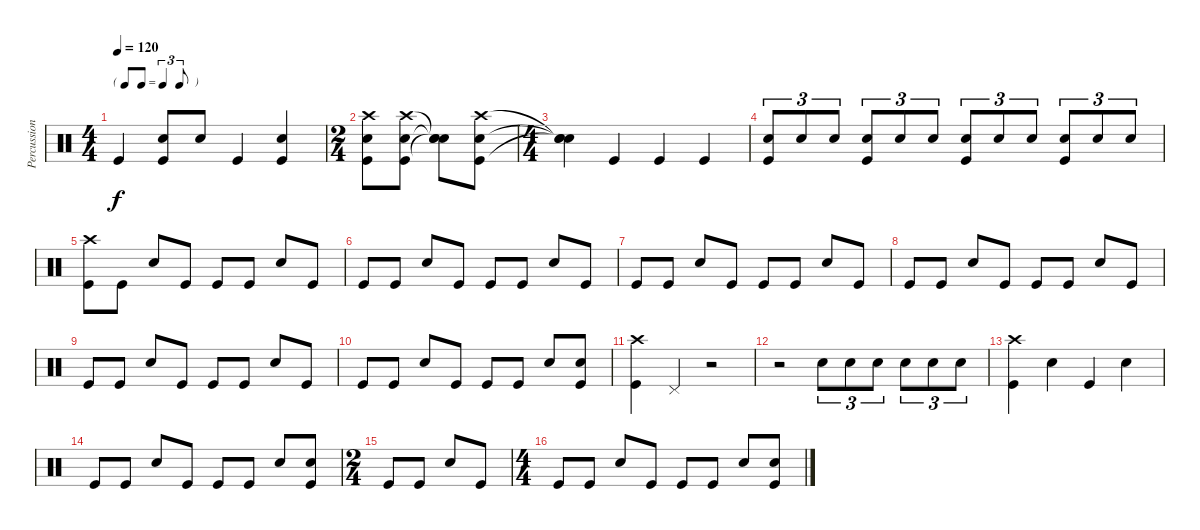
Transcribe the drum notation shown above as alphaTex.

\track ("Percussion" "Percussion") {instrument percussion}
\staff {score}
\articulation defaults
\ts (4 4)
\tf triplet8th
\tempo 120
\clef neutral
\ks c "Kick (hit)".4{dy f}
("Snare (hit) 2" "Kick (hit)").8 "Snare (hit) 2".8 "Kick (hit)".4 ("Snare (hit) 2" "Kick (hit)").4 |
\ts (2 4)
("Crash high (hit)" "Snare (hit) 2" "Kick (hit)").8 ("Crash high (hit)" "Snare (hit) 2" "Kick (hit)").8 ("Snare (hit)"{t} "Snare (hit)"{t} "Snare (hit)"{t}).8 ("Crash high (hit)" "Snare (hit) 2" "Kick (hit)").8 |
\ts (4 4)
("Snare (hit)"{t} "Snare (hit)"{t} "Snare (hit)"{t}).4 "Kick (hit)".4 "Kick (hit)".4 "Kick (hit)".4 |
("Snare (hit) 2" "Kick (hit)").8{tu (3 2)} "Snare (hit) 2".8{tu (3 2)} "Snare (hit) 2".8{tu (3 2)} ("Snare (hit) 2" "Kick (hit)").8{tu (3 2)} "Snare (hit) 2".8{tu (3 2)} "Snare (hit) 2".8{tu (3 2)} ("Snare (hit) 2" "Kick (hit)").8{tu (3 2)} "Snare (hit) 2".8{tu (3 2)} "Snare (hit) 2".8{tu (3 2)} ("Snare (hit) 2" "Kick (hit)").8{tu (3 2)} "Snare (hit) 2".8{tu (3 2)} "Snare (hit) 2".8{tu (3 2)} |
("Crash high (hit)" "Kick (hit)").8 "Kick (hit)".8 "Snare (hit) 2".8 "Kick (hit)".8 "Kick (hit)".8 "Kick (hit)".8 "Snare (hit) 2".8 "Kick (hit)".8 |
"Kick (hit)".8 "Kick (hit)".8 "Snare (hit) 2".8 "Kick (hit)".8 "Kick (hit)".8 "Kick (hit)".8 "Snare (hit) 2".8 "Kick (hit)".8 |
"Kick (hit)".8 "Kick (hit)".8 "Snare (hit) 2".8 "Kick (hit)".8 "Kick (hit)".8 "Kick (hit)".8 "Snare (hit) 2".8 "Kick (hit)".8 |
"Kick (hit)".8 "Kick (hit)".8 "Snare (hit) 2".8 "Kick (hit)".8 "Kick (hit)".8 "Kick (hit)".8 "Snare (hit) 2".8 "Kick (hit)".8 |
"Kick (hit)".8 "Kick (hit)".8 "Snare (hit) 2".8 "Kick (hit)".8 "Kick (hit)".8 "Kick (hit)".8 "Snare (hit) 2".8 "Kick (hit)".8 |
"Kick (hit)".8 "Kick (hit)".8 "Snare (hit) 2".8 "Kick (hit)".8 "Kick (hit)".8 "Kick (hit)".8 "Snare (hit) 2".8 ("Snare (hit) 2" "Kick (hit)").8 |
("Crash high (hit)" "Kick (hit)").4 "Pedal Hi-Hat (hit)".4 r.2 |
r.2 "Snare (hit) 2".8{tu (3 2)} "Snare (hit) 2".8{tu (3 2)} "Snare (hit) 2".8{tu (3 2)} "Snare (hit) 2".8{tu (3 2)} "Snare (hit) 2".8{tu (3 2)} "Snare (hit) 2".8{tu (3 2)} |
("Crash high (hit)" "Kick (hit)").4 "Snare (hit) 2".4 "Kick (hit)".4 "Snare (hit) 2".4 |
"Kick (hit)".8 "Kick (hit)".8 "Snare (hit) 2".8 "Kick (hit)".8 "Kick (hit)".8 "Kick (hit)".8 "Snare (hit) 2".8 ("Snare (hit) 2" "Kick (hit)").8 |
\ts (2 4)
"Kick (hit)".8 "Kick (hit)".8 "Snare (hit) 2".8 "Kick (hit)".8 |
\ts (4 4)
"Kick (hit)".8 "Kick (hit)".8 "Snare (hit) 2".8 "Kick (hit)".8 "Kick (hit)".8 "Kick (hit)".8 "Snare (hit) 2".8 ("Snare (hit) 2" "Kick (hit)").8
